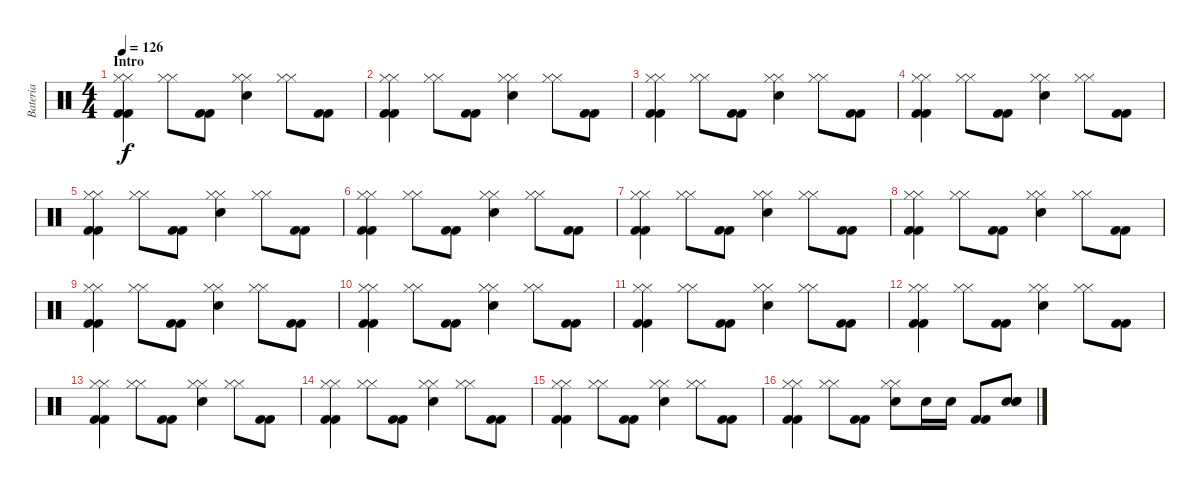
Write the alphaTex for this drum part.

\track ("Bateria" "Bateria") {instrument percussion}
\staff {score}
\articulation defaults
\ts (4 4)
\section ("" "Intro")
\tempo 126
\clef neutral
\ks c
("Hi-Hat (closed)" "Hi-Hat (closed)" "Kick (hit) 2" "Kick (hit) 2").4{dy f} ("Hi-Hat (closed)" "Hi-Hat (closed)").8 ("Kick (hit) 2" "Kick (hit) 2").8 ("Snare (hit) 2" "Hi-Hat (closed)" "Hi-Hat (closed)").4 ("Hi-Hat (closed)" "Hi-Hat (closed)").8 ("Kick (hit) 2" "Kick (hit) 2").8 |
("Hi-Hat (closed)" "Hi-Hat (closed)" "Kick (hit) 2" "Kick (hit) 2").4 ("Hi-Hat (closed)" "Hi-Hat (closed)").8 ("Kick (hit) 2" "Kick (hit) 2").8 ("Snare (hit) 2" "Hi-Hat (closed)" "Hi-Hat (closed)").4 ("Hi-Hat (closed)" "Hi-Hat (closed)").8 ("Kick (hit) 2" "Kick (hit) 2").8 |
("Hi-Hat (closed)" "Hi-Hat (closed)" "Kick (hit) 2" "Kick (hit) 2").4 ("Hi-Hat (closed)" "Hi-Hat (closed)").8 ("Kick (hit) 2" "Kick (hit) 2").8 ("Snare (hit) 2" "Hi-Hat (closed)" "Hi-Hat (closed)").4 ("Hi-Hat (closed)" "Hi-Hat (closed)").8 ("Kick (hit) 2" "Kick (hit) 2").8 |
("Hi-Hat (closed)" "Hi-Hat (closed)" "Kick (hit) 2" "Kick (hit) 2").4 ("Hi-Hat (closed)" "Hi-Hat (closed)").8 ("Kick (hit) 2" "Kick (hit) 2").8 ("Snare (hit) 2" "Hi-Hat (closed)" "Hi-Hat (closed)").4 ("Hi-Hat (closed)" "Hi-Hat (closed)").8 ("Kick (hit) 2" "Kick (hit) 2").8 |
("Hi-Hat (closed)" "Hi-Hat (closed)" "Kick (hit) 2" "Kick (hit) 2").4 ("Hi-Hat (closed)" "Hi-Hat (closed)").8 ("Kick (hit) 2" "Kick (hit) 2").8 ("Snare (hit) 2" "Hi-Hat (closed)" "Hi-Hat (closed)").4 ("Hi-Hat (closed)" "Hi-Hat (closed)").8 ("Kick (hit) 2" "Kick (hit) 2").8 |
("Hi-Hat (closed)" "Hi-Hat (closed)" "Kick (hit) 2" "Kick (hit) 2").4 ("Hi-Hat (closed)" "Hi-Hat (closed)").8 ("Kick (hit) 2" "Kick (hit) 2").8 ("Snare (hit) 2" "Hi-Hat (closed)" "Hi-Hat (closed)").4 ("Hi-Hat (closed)" "Hi-Hat (closed)").8 ("Kick (hit) 2" "Kick (hit) 2").8 |
("Hi-Hat (closed)" "Hi-Hat (closed)" "Kick (hit) 2" "Kick (hit) 2").4 ("Hi-Hat (closed)" "Hi-Hat (closed)").8 ("Kick (hit) 2" "Kick (hit) 2").8 ("Snare (hit) 2" "Hi-Hat (closed)" "Hi-Hat (closed)").4 ("Hi-Hat (closed)" "Hi-Hat (closed)").8 ("Kick (hit) 2" "Kick (hit) 2").8 |
("Hi-Hat (closed)" "Hi-Hat (closed)" "Kick (hit) 2" "Kick (hit) 2").4 ("Hi-Hat (closed)" "Hi-Hat (closed)").8 ("Kick (hit) 2" "Kick (hit) 2").8 ("Snare (hit) 2" "Hi-Hat (closed)" "Hi-Hat (closed)").4 ("Hi-Hat (closed)" "Hi-Hat (closed)").8 ("Kick (hit) 2" "Kick (hit) 2").8 |
("Hi-Hat (closed)" "Hi-Hat (closed)" "Kick (hit) 2" "Kick (hit) 2").4 ("Hi-Hat (closed)" "Hi-Hat (closed)").8 ("Kick (hit) 2" "Kick (hit) 2").8 ("Snare (hit) 2" "Hi-Hat (closed)" "Hi-Hat (closed)").4 ("Hi-Hat (closed)" "Hi-Hat (closed)").8 ("Kick (hit) 2" "Kick (hit) 2").8 |
("Hi-Hat (closed)" "Hi-Hat (closed)" "Kick (hit) 2" "Kick (hit) 2").4 ("Hi-Hat (closed)" "Hi-Hat (closed)").8 ("Kick (hit) 2" "Kick (hit) 2").8 ("Snare (hit) 2" "Hi-Hat (closed)" "Hi-Hat (closed)").4 ("Hi-Hat (closed)" "Hi-Hat (closed)").8 ("Kick (hit) 2" "Kick (hit) 2").8 |
("Hi-Hat (closed)" "Hi-Hat (closed)" "Kick (hit) 2" "Kick (hit) 2").4 ("Hi-Hat (closed)" "Hi-Hat (closed)").8 ("Kick (hit) 2" "Kick (hit) 2").8 ("Snare (hit) 2" "Hi-Hat (closed)" "Hi-Hat (closed)").4 ("Hi-Hat (closed)" "Hi-Hat (closed)").8 ("Kick (hit) 2" "Kick (hit) 2").8 |
("Hi-Hat (closed)" "Hi-Hat (closed)" "Kick (hit) 2" "Kick (hit) 2").4 ("Hi-Hat (closed)" "Hi-Hat (closed)").8 ("Kick (hit) 2" "Kick (hit) 2").8 ("Snare (hit) 2" "Hi-Hat (closed)" "Hi-Hat (closed)").4 ("Hi-Hat (closed)" "Hi-Hat (closed)").8 ("Kick (hit) 2" "Kick (hit) 2").8 |
("Hi-Hat (closed)" "Hi-Hat (closed)" "Kick (hit) 2" "Kick (hit) 2").4 ("Hi-Hat (closed)" "Hi-Hat (closed)").8 ("Kick (hit) 2" "Kick (hit) 2").8 ("Snare (hit) 2" "Hi-Hat (closed)" "Hi-Hat (closed)").4 ("Hi-Hat (closed)" "Hi-Hat (closed)").8 ("Kick (hit) 2" "Kick (hit) 2").8 |
("Hi-Hat (closed)" "Hi-Hat (closed)" "Kick (hit) 2" "Kick (hit) 2").4 ("Hi-Hat (closed)" "Hi-Hat (closed)").8 ("Kick (hit) 2" "Kick (hit) 2").8 ("Snare (hit) 2" "Hi-Hat (closed)" "Hi-Hat (closed)").4 ("Hi-Hat (closed)" "Hi-Hat (closed)").8 ("Kick (hit) 2" "Kick (hit) 2").8 |
("Hi-Hat (closed)" "Hi-Hat (closed)" "Kick (hit) 2" "Kick (hit) 2").4 ("Hi-Hat (closed)" "Hi-Hat (closed)").8 ("Kick (hit) 2" "Kick (hit) 2").8 ("Snare (hit) 2" "Hi-Hat (closed)" "Hi-Hat (closed)").4 ("Hi-Hat (closed)" "Hi-Hat (closed)").8 ("Kick (hit) 2" "Kick (hit) 2").8 |
("Hi-Hat (closed)" "Hi-Hat (closed)" "Kick (hit) 2" "Kick (hit) 2").4 ("Hi-Hat (closed)" "Hi-Hat (closed)").8 ("Kick (hit) 2" "Kick (hit) 2").8 ("Snare (hit) 2" "Hi-Hat (closed)" "Hi-Hat (closed)").8 "Snare (hit) 2".16 "Snare (hit) 2".16 ("Kick (hit) 2" "Kick (hit) 2").8 ("Snare (hit) 2" "Snare (hit) 2" "Snare (hit) 2").8
